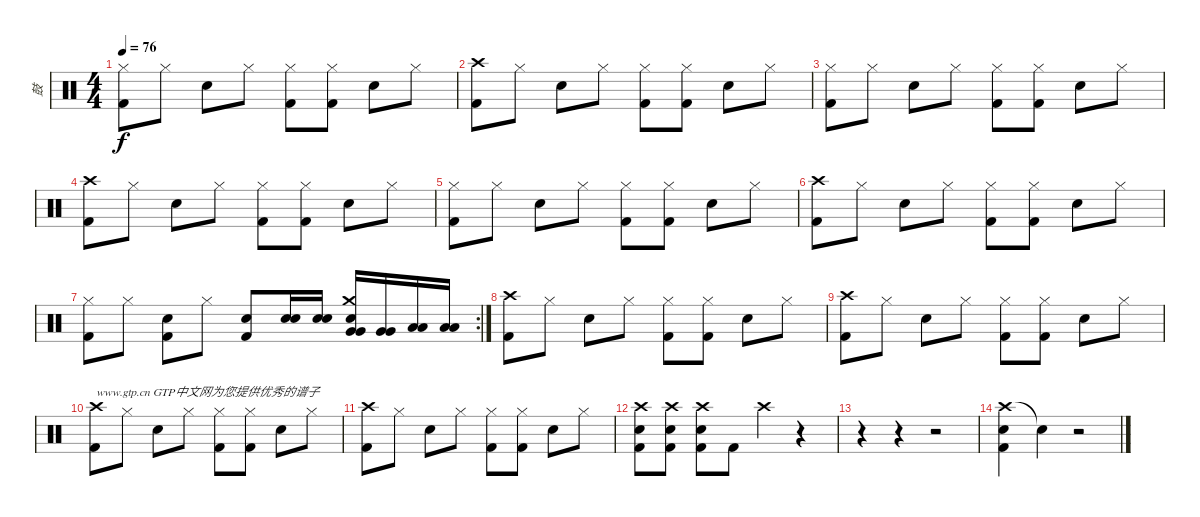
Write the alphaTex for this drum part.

\track ("鼓" "鼓") {instrument percussion}
\staff {score}
\articulation defaults
\ts (4 4)
\tempo 76
\clef neutral
\ks c
("Hi-Hat (closed)" "Kick (hit) 2").8{dy f} "Hi-Hat (closed)".8 "Snare (hit) 2".8 "Hi-Hat (closed)".8 ("Hi-Hat (closed)" "Kick (hit) 2").8 ("Hi-Hat (closed)" "Kick (hit) 2").8 "Snare (hit) 2".8 "Hi-Hat (closed)".8 |
("Crash high (hit)" "Kick (hit) 2").8 "Hi-Hat (closed)".8 "Snare (hit) 2".8 "Hi-Hat (closed)".8 ("Hi-Hat (closed)" "Kick (hit) 2").8 ("Hi-Hat (closed)" "Kick (hit) 2").8 "Snare (hit) 2".8 "Hi-Hat (closed)".8 |
("Hi-Hat (closed)" "Kick (hit) 2").8 "Hi-Hat (closed)".8 "Snare (hit) 2".8 "Hi-Hat (closed)".8 ("Hi-Hat (closed)" "Kick (hit) 2").8 ("Hi-Hat (closed)" "Kick (hit) 2").8 "Snare (hit) 2".8 "Hi-Hat (closed)".8 |
("Crash high (hit)" "Kick (hit) 2").8 "Hi-Hat (closed)".8 "Snare (hit) 2".8 "Hi-Hat (closed)".8 ("Hi-Hat (closed)" "Kick (hit) 2").8 ("Hi-Hat (closed)" "Kick (hit) 2").8 "Snare (hit) 2".8 "Hi-Hat (closed)".8 |
("Hi-Hat (closed)" "Kick (hit) 2").8 "Hi-Hat (closed)".8 "Snare (hit) 2".8 "Hi-Hat (closed)".8 ("Hi-Hat (closed)" "Kick (hit) 2").8 ("Hi-Hat (closed)" "Kick (hit) 2").8 "Snare (hit) 2".8 "Hi-Hat (closed)".8 |
("Crash high (hit)" "Kick (hit) 2").8 "Hi-Hat (closed)".8 "Snare (hit) 2".8 "Hi-Hat (closed)".8 ("Hi-Hat (closed)" "Kick (hit) 2").8 ("Hi-Hat (closed)" "Kick (hit) 2").8 "Snare (hit) 2".8 "Hi-Hat (closed)".8 |
\rc 2
("Hi-Hat (closed)" "Kick (hit) 2").8 "Hi-Hat (closed)".8 ("Snare (hit) 2" "Kick (hit) 2").8 "Hi-Hat (closed)".8 ("Kick (hit) 2" "Snare (hit) 2").8 ("Electric Snare (hit)" "Electric Snare (hit)").16 ("Electric Snare (hit)" "Electric Snare (hit)").16 ("Crash medium (hit)" "Very Low Tom (hit)" "Very Low Tom (hit)" "Snare (hit) 2").16 ("Very Low Tom (hit)" "Very Low Tom (hit)").16 ("Low Tom (hit)" "Low Tom (hit)").16 ("Low Tom (hit)" "Low Tom (hit)").16 |
("Crash high (hit)" "Kick (hit) 2").8 "Hi-Hat (closed)".8 "Snare (hit) 2".8 "Hi-Hat (closed)".8 ("Hi-Hat (closed)" "Kick (hit) 2").8 ("Hi-Hat (closed)" "Kick (hit) 2").8 "Snare (hit) 2".8 "Hi-Hat (closed)".8 |
("Crash high (hit)" "Kick (hit) 2").8 "Hi-Hat (closed)".8 "Snare (hit) 2".8 "Hi-Hat (closed)".8 ("Hi-Hat (closed)" "Kick (hit) 2").8 ("Hi-Hat (closed)" "Kick (hit) 2").8 "Snare (hit) 2".8 "Hi-Hat (closed)".8 |
("Crash high (hit)" "Kick (hit) 2").8{txt "www.gtp.cn GTP中文网为您提供优秀的谱子"} "Hi-Hat (closed)".8 "Snare (hit) 2".8 "Hi-Hat (closed)".8 ("Hi-Hat (closed)" "Kick (hit) 2").8 ("Hi-Hat (closed)" "Kick (hit) 2").8 "Snare (hit) 2".8 "Hi-Hat (closed)".8 |
("Crash high (hit)" "Kick (hit) 2").8 "Hi-Hat (closed)".8 "Snare (hit) 2".8 "Hi-Hat (closed)".8 ("Hi-Hat (closed)" "Kick (hit) 2").8 ("Hi-Hat (closed)" "Kick (hit) 2").8 "Snare (hit) 2".8 "Hi-Hat (closed)".8 |
("Crash high (hit)" "Snare (hit) 2" "Kick (hit) 2").8 ("Crash high (hit)" "Snare (hit) 2" "Kick (hit) 2").8 ("Crash high (hit)" "Snare (hit) 2" "Kick (hit) 2").8 "Kick (hit) 2".8 "Crash high (hit)".4 r.4 |
r.4 r.4 r.2 |
("Crash high (hit)" "Snare (hit) 2" "Kick (hit) 2").4 "Snare (hit)"{t}.4 r.2
